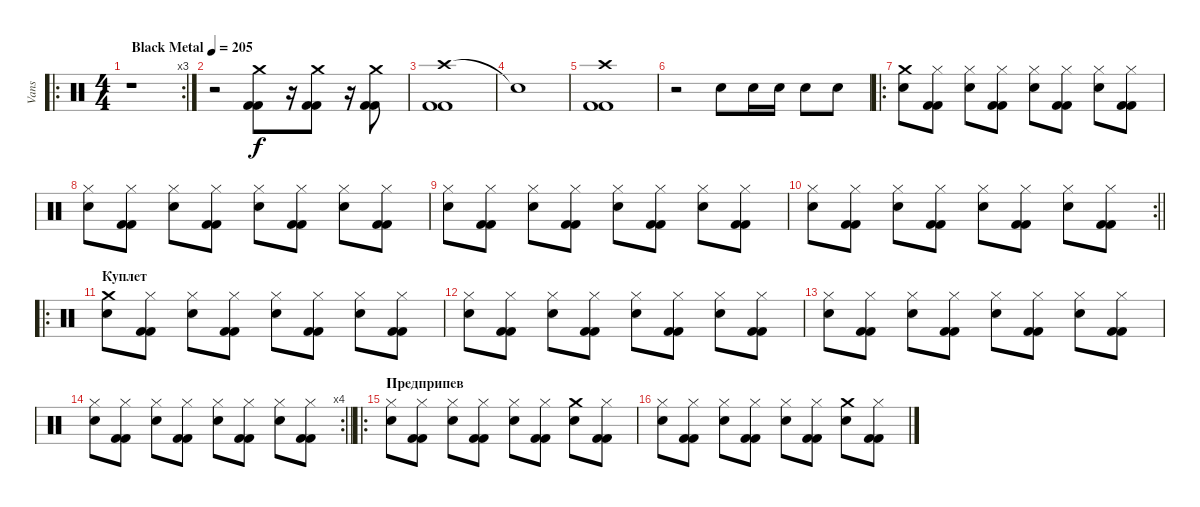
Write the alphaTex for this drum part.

\track ("Vans" "Vans") {instrument percussion}
\staff {score}
\articulation defaults
\ro
\rc 3
\ts (4 4)
\tempo (205 "Black Metal")
\clef neutral
\ks c
r.1{dy f} |
r.2 ("Crash medium (hit)" "Kick (hit) 2" "Kick (hit) 2").8 r.16 ("Crash medium (hit)" "Kick (hit) 2" "Kick (hit) 2").8 r.16 ("Crash medium (hit)" "Kick (hit) 2" "Kick (hit) 2").8 |
("Crash high (hit)" "Kick (hit) 2" "Kick (hit) 2").1 |
"Snare (hit)"{t}.1 |
("Crash high (hit)" "Kick (hit) 2" "Kick (hit) 2").1 |
r.2 "Snare (hit) 2".8 "Snare (hit) 2".16 "Snare (hit) 2".16 "Snare (hit) 2".8 "Snare (hit) 2".8 |
\ro
("Crash medium (hit)" "Snare (hit) 2").8 ("Hi-Hat (closed)" "Kick (hit) 2" "Kick (hit) 2").8 ("Hi-Hat (closed)" "Snare (hit) 2").8 ("Hi-Hat (closed)" "Kick (hit) 2" "Kick (hit) 2").8 ("Hi-Hat (closed)" "Snare (hit) 2").8 ("Hi-Hat (closed)" "Kick (hit) 2" "Kick (hit) 2").8 ("Hi-Hat (closed)" "Snare (hit) 2").8 ("Hi-Hat (closed)" "Kick (hit) 2" "Kick (hit) 2").8 |
("Hi-Hat (closed)" "Snare (hit) 2").8 ("Hi-Hat (closed)" "Kick (hit) 2" "Kick (hit) 2").8 ("Hi-Hat (closed)" "Snare (hit) 2").8 ("Hi-Hat (closed)" "Kick (hit) 2" "Kick (hit) 2").8 ("Hi-Hat (closed)" "Snare (hit) 2").8 ("Hi-Hat (closed)" "Kick (hit) 2" "Kick (hit) 2").8 ("Hi-Hat (closed)" "Snare (hit) 2").8 ("Hi-Hat (closed)" "Kick (hit) 2" "Kick (hit) 2").8 |
("Hi-Hat (closed)" "Snare (hit) 2").8 ("Hi-Hat (closed)" "Kick (hit) 2" "Kick (hit) 2").8 ("Hi-Hat (closed)" "Snare (hit) 2").8 ("Hi-Hat (closed)" "Kick (hit) 2" "Kick (hit) 2").8 ("Hi-Hat (closed)" "Snare (hit) 2").8 ("Hi-Hat (closed)" "Kick (hit) 2" "Kick (hit) 2").8 ("Hi-Hat (closed)" "Snare (hit) 2").8 ("Hi-Hat (closed)" "Kick (hit) 2" "Kick (hit) 2").8 |
\rc 2
\barLineRight lightlight
("Hi-Hat (closed)" "Snare (hit) 2").8 ("Hi-Hat (closed)" "Kick (hit) 2" "Kick (hit) 2").8 ("Hi-Hat (closed)" "Snare (hit) 2").8 ("Hi-Hat (closed)" "Kick (hit) 2" "Kick (hit) 2").8 ("Hi-Hat (closed)" "Snare (hit) 2").8 ("Hi-Hat (closed)" "Kick (hit) 2" "Kick (hit) 2").8 ("Hi-Hat (closed)" "Snare (hit) 2").8 ("Hi-Hat (closed)" "Kick (hit) 2" "Kick (hit) 2").8 |
\ro
\section ("" "Куплет")
("Crash medium (hit)" "Snare (hit) 2").8 ("Hi-Hat (closed)" "Kick (hit) 2" "Kick (hit) 2").8 ("Hi-Hat (closed)" "Snare (hit) 2").8 ("Hi-Hat (closed)" "Kick (hit) 2" "Kick (hit) 2").8 ("Hi-Hat (closed)" "Snare (hit) 2").8 ("Hi-Hat (closed)" "Kick (hit) 2" "Kick (hit) 2").8 ("Hi-Hat (closed)" "Snare (hit) 2").8 ("Hi-Hat (closed)" "Kick (hit) 2" "Kick (hit) 2").8 |
("Hi-Hat (closed)" "Snare (hit) 2").8 ("Hi-Hat (closed)" "Kick (hit) 2" "Kick (hit) 2").8 ("Hi-Hat (closed)" "Snare (hit) 2").8 ("Hi-Hat (closed)" "Kick (hit) 2" "Kick (hit) 2").8 ("Hi-Hat (closed)" "Snare (hit) 2").8 ("Hi-Hat (closed)" "Kick (hit) 2" "Kick (hit) 2").8 ("Hi-Hat (closed)" "Snare (hit) 2").8 ("Hi-Hat (closed)" "Kick (hit) 2" "Kick (hit) 2").8 |
("Hi-Hat (closed)" "Snare (hit) 2").8 ("Hi-Hat (closed)" "Kick (hit) 2" "Kick (hit) 2").8 ("Hi-Hat (closed)" "Snare (hit) 2").8 ("Hi-Hat (closed)" "Kick (hit) 2" "Kick (hit) 2").8 ("Hi-Hat (closed)" "Snare (hit) 2").8 ("Hi-Hat (closed)" "Kick (hit) 2" "Kick (hit) 2").8 ("Hi-Hat (closed)" "Snare (hit) 2").8 ("Hi-Hat (closed)" "Kick (hit) 2" "Kick (hit) 2").8 |
\rc 4
\barLineRight lightlight
("Hi-Hat (closed)" "Snare (hit) 2").8 ("Hi-Hat (closed)" "Kick (hit) 2" "Kick (hit) 2").8 ("Hi-Hat (closed)" "Snare (hit) 2").8 ("Hi-Hat (closed)" "Kick (hit) 2" "Kick (hit) 2").8 ("Hi-Hat (closed)" "Snare (hit) 2").8 ("Hi-Hat (closed)" "Kick (hit) 2" "Kick (hit) 2").8 ("Hi-Hat (closed)" "Snare (hit) 2").8 ("Hi-Hat (closed)" "Kick (hit) 2" "Kick (hit) 2").8 |
\ro
\section ("" "Предприпев")
("Hi-Hat (closed)" "Snare (hit) 2").8 ("Hi-Hat (closed)" "Kick (hit) 2" "Kick (hit) 2").8 ("Hi-Hat (closed)" "Snare (hit) 2").8 ("Hi-Hat (closed)" "Kick (hit) 2" "Kick (hit) 2").8 ("Hi-Hat (closed)" "Snare (hit) 2").8 ("Hi-Hat (closed)" "Kick (hit) 2" "Kick (hit) 2").8 ("Crash medium (hit)" "Snare (hit) 2").8 ("Hi-Hat (closed)" "Kick (hit) 2" "Kick (hit) 2").8 |
("Hi-Hat (closed)" "Snare (hit) 2").8 ("Hi-Hat (closed)" "Kick (hit) 2" "Kick (hit) 2").8 ("Hi-Hat (closed)" "Snare (hit) 2").8 ("Hi-Hat (closed)" "Kick (hit) 2" "Kick (hit) 2").8 ("Hi-Hat (closed)" "Snare (hit) 2").8 ("Hi-Hat (closed)" "Kick (hit) 2" "Kick (hit) 2").8 ("Crash medium (hit)" "Snare (hit) 2").8 ("Hi-Hat (closed)" "Kick (hit) 2" "Kick (hit) 2").8
